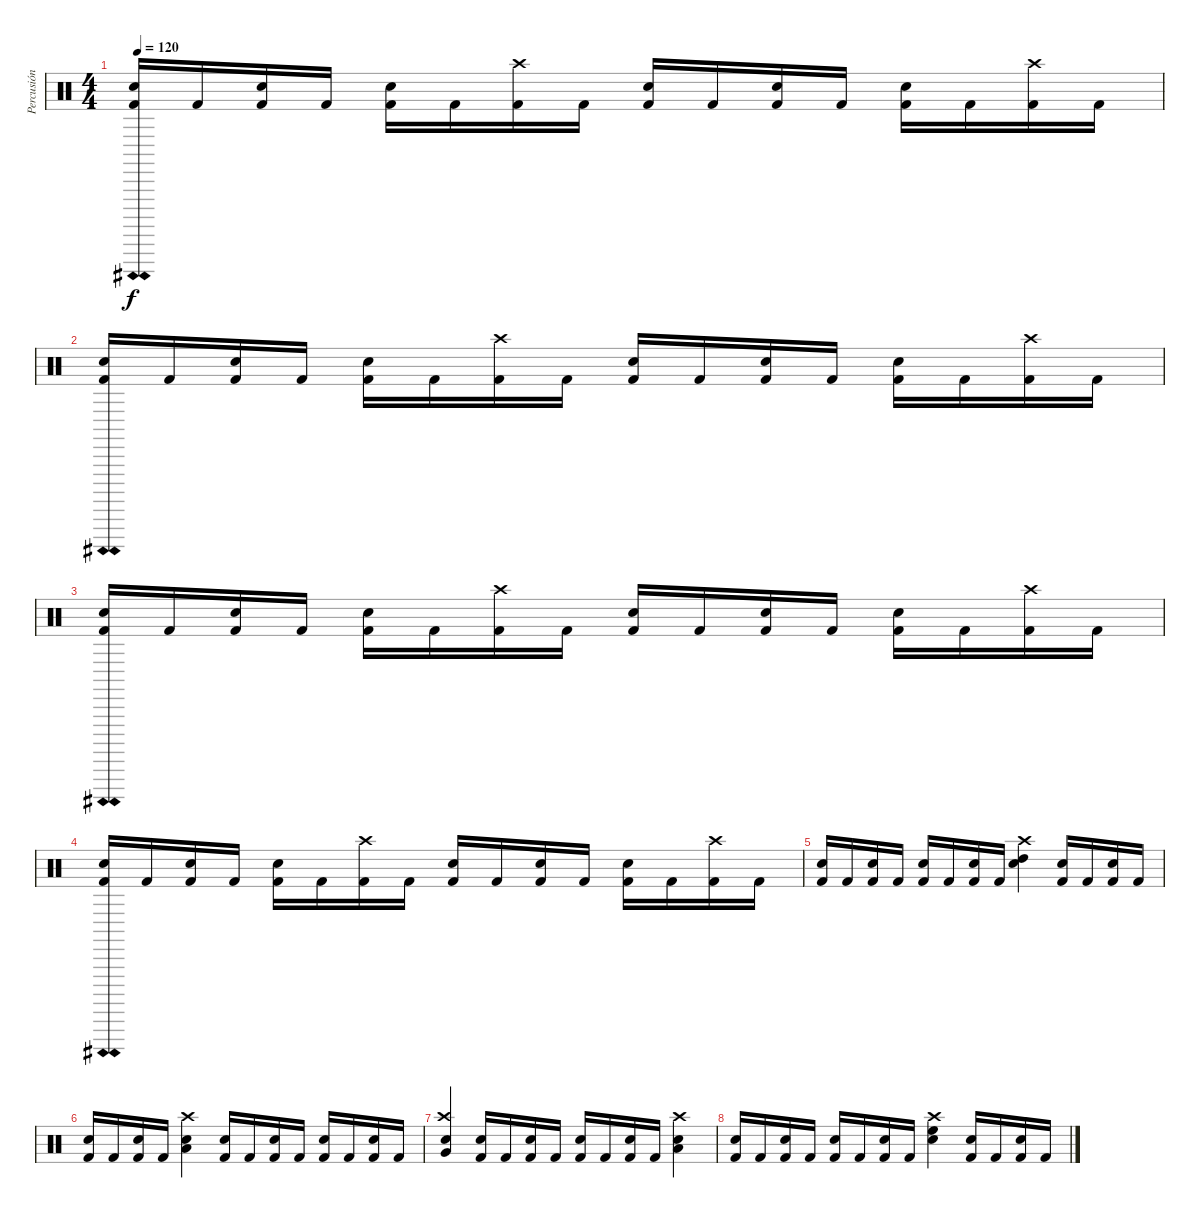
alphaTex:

\track ("Percusión" "Percusión") {instrument percussion}
\staff {score}
\articulation defaults
\ts (4 4)
\tempo 120
\clef neutral
\ks c
("Kick (hit) 2"{ah 12} "Electric Snare (hit)"{ah 12}).16{dy f} "Kick (hit) 2".16 ("Kick (hit) 2" "Electric Snare (hit)").16 "Kick (hit) 2".16 ("Kick (hit) 2" "Electric Snare (hit)").16 "Kick (hit) 2".16 ("Crash high (hit)" "Kick (hit) 2").16 "Kick (hit) 2".16 ("Kick (hit) 2" "Electric Snare (hit)").16 "Kick (hit) 2".16 ("Kick (hit) 2" "Electric Snare (hit)").16 "Kick (hit) 2".16 ("Kick (hit) 2" "Electric Snare (hit)").16 "Kick (hit) 2".16 ("Crash high (hit)" "Kick (hit) 2").16 "Kick (hit) 2".16 |
("Kick (hit) 2"{ah 12} "Electric Snare (hit)"{ah 12}).16 "Kick (hit) 2".16 ("Kick (hit) 2" "Electric Snare (hit)").16 "Kick (hit) 2".16 ("Kick (hit) 2" "Electric Snare (hit)").16 "Kick (hit) 2".16 ("Crash high (hit)" "Kick (hit) 2").16 "Kick (hit) 2".16 ("Kick (hit) 2" "Electric Snare (hit)").16 "Kick (hit) 2".16 ("Kick (hit) 2" "Electric Snare (hit)").16 "Kick (hit) 2".16 ("Kick (hit) 2" "Electric Snare (hit)").16 "Kick (hit) 2".16 ("Crash high (hit)" "Kick (hit) 2").16 "Kick (hit) 2".16 |
("Kick (hit) 2"{ah 12} "Electric Snare (hit)"{ah 12}).16 "Kick (hit) 2".16 ("Kick (hit) 2" "Electric Snare (hit)").16 "Kick (hit) 2".16 ("Kick (hit) 2" "Electric Snare (hit)").16 "Kick (hit) 2".16 ("Crash high (hit)" "Kick (hit) 2").16 "Kick (hit) 2".16 ("Kick (hit) 2" "Electric Snare (hit)").16 "Kick (hit) 2".16 ("Kick (hit) 2" "Electric Snare (hit)").16 "Kick (hit) 2".16 ("Kick (hit) 2" "Electric Snare (hit)").16 "Kick (hit) 2".16 ("Crash high (hit)" "Kick (hit) 2").16 "Kick (hit) 2".16 |
("Kick (hit) 2"{ah 12} "Electric Snare (hit)"{ah 12}).16 "Kick (hit) 2".16 ("Kick (hit) 2" "Electric Snare (hit)").16 "Kick (hit) 2".16 ("Kick (hit) 2" "Electric Snare (hit)").16 "Kick (hit) 2".16 ("Crash high (hit)" "Kick (hit) 2").16 "Kick (hit) 2".16 ("Kick (hit) 2" "Electric Snare (hit)").16 "Kick (hit) 2".16 ("Kick (hit) 2" "Electric Snare (hit)").16 "Kick (hit) 2".16 ("Kick (hit) 2" "Electric Snare (hit)").16 "Kick (hit) 2".16 ("Crash high (hit)" "Kick (hit) 2").16 "Kick (hit) 2".16 |
("Kick (hit) 2" "Electric Snare (hit)").16 "Kick (hit) 2".16 ("Kick (hit) 2" "Electric Snare (hit)").16 "Kick (hit) 2".16 ("Kick (hit) 2" "Electric Snare (hit)").16 "Kick (hit) 2".16 ("Kick (hit) 2" "Electric Snare (hit)").16 "Kick (hit) 2".16 ("Crash high (hit)" "High Tom (hit)" "Electric Snare (hit)").4 ("Kick (hit) 2" "Electric Snare (hit)").16 "Kick (hit) 2".16 ("Kick (hit) 2" "Electric Snare (hit)").16 "Kick (hit) 2".16 |
("Kick (hit) 2" "Electric Snare (hit)").16 "Kick (hit) 2".16 ("Kick (hit) 2" "Electric Snare (hit)").16 "Kick (hit) 2".16 ("Crash high (hit)" "Low Tom (hit)" "Electric Snare (hit)").4 ("Kick (hit) 2" "Electric Snare (hit)").16 "Kick (hit) 2".16 ("Kick (hit) 2" "Electric Snare (hit)").16 "Kick (hit) 2".16 ("Kick (hit) 2" "Electric Snare (hit)").16 "Kick (hit) 2".16 ("Kick (hit) 2" "Electric Snare (hit)").16 "Kick (hit) 2".16 |
("Crash high (hit)" "Very Low Tom (hit)" "Electric Snare (hit)").4 ("Kick (hit) 2" "Electric Snare (hit)").16 "Kick (hit) 2".16 ("Kick (hit) 2" "Electric Snare (hit)").16 "Kick (hit) 2".16 ("Kick (hit) 2" "Electric Snare (hit)").16 "Kick (hit) 2".16 ("Kick (hit) 2" "Electric Snare (hit)").16 "Kick (hit) 2".16 ("Crash high (hit)" "Low Floor Tom (hit)" "Electric Snare (hit)").4 |
("Kick (hit) 2" "Electric Snare (hit)").16 "Kick (hit) 2".16 ("Kick (hit) 2" "Electric Snare (hit)").16 "Kick (hit) 2".16 ("Kick (hit) 2" "Electric Snare (hit)").16 "Kick (hit) 2".16 ("Kick (hit) 2" "Electric Snare (hit)").16 "Kick (hit) 2".16 ("Crash high (hit)" "High Floor Tom (hit)" "Electric Snare (hit)").4 ("Kick (hit) 2" "Electric Snare (hit)").16 "Kick (hit) 2".16 ("Kick (hit) 2" "Electric Snare (hit)").16 "Kick (hit) 2".16
